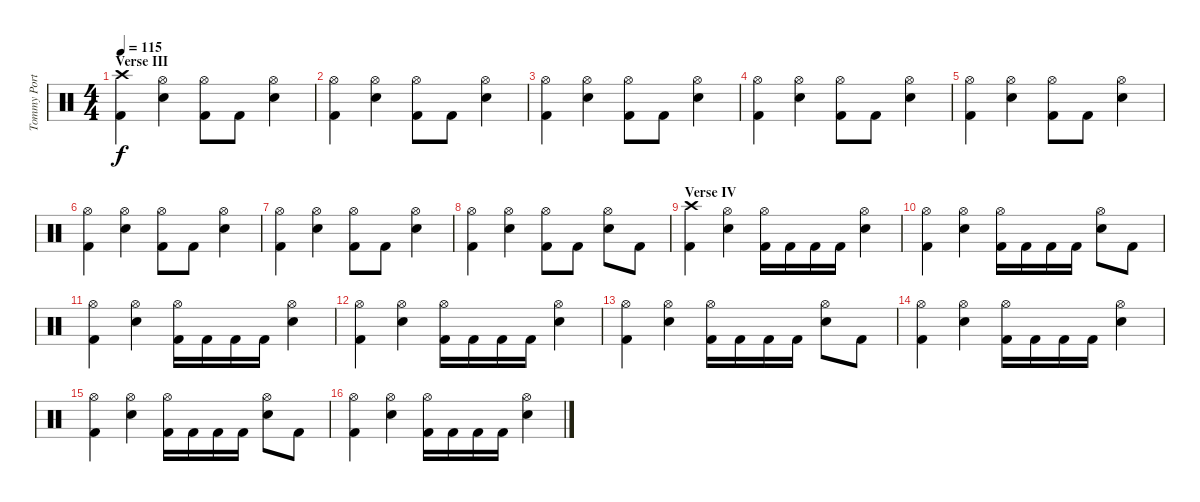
\track ("Tommy Portino - Drums" "Tommy Port") {instrument percussion}
\staff {score}
\articulation defaults
\ts (4 4)
\section ("" "Verse III")
\tempo 115
\clef neutral
\ks c
("Crash high (hit)" "Kick (hit) 2").4{dy f} ("Hi-Hat (open)" "Electric Snare (hit)").4 ("Hi-Hat (open)" "Kick (hit) 2").8 "Kick (hit) 2".8 ("Hi-Hat (open)" "Electric Snare (hit)").4 |
("Hi-Hat (open)" "Kick (hit) 2").4 ("Hi-Hat (open)" "Electric Snare (hit)").4 ("Hi-Hat (open)" "Kick (hit) 2").8 "Kick (hit) 2".8 ("Hi-Hat (open)" "Electric Snare (hit)").4 |
("Hi-Hat (open)" "Kick (hit) 2").4 ("Hi-Hat (open)" "Electric Snare (hit)").4 ("Hi-Hat (open)" "Kick (hit) 2").8 "Kick (hit) 2".8 ("Hi-Hat (open)" "Electric Snare (hit)").4 |
("Hi-Hat (open)" "Kick (hit) 2").4 ("Hi-Hat (open)" "Electric Snare (hit)").4 ("Hi-Hat (open)" "Kick (hit) 2").8 "Kick (hit) 2".8 ("Hi-Hat (open)" "Electric Snare (hit)").4 |
("Hi-Hat (open)" "Kick (hit) 2").4 ("Hi-Hat (open)" "Electric Snare (hit)").4 ("Hi-Hat (open)" "Kick (hit) 2").8 "Kick (hit) 2".8 ("Hi-Hat (open)" "Electric Snare (hit)").4 |
("Hi-Hat (open)" "Kick (hit) 2").4 ("Hi-Hat (open)" "Electric Snare (hit)").4 ("Hi-Hat (open)" "Kick (hit) 2").8 "Kick (hit) 2".8 ("Hi-Hat (open)" "Electric Snare (hit)").4 |
("Hi-Hat (open)" "Kick (hit) 2").4 ("Hi-Hat (open)" "Electric Snare (hit)").4 ("Hi-Hat (open)" "Kick (hit) 2").8 "Kick (hit) 2".8 ("Hi-Hat (open)" "Electric Snare (hit)").4 |
("Hi-Hat (open)" "Kick (hit) 2").4 ("Hi-Hat (open)" "Electric Snare (hit)").4 ("Hi-Hat (open)" "Kick (hit) 2").8 "Kick (hit) 2".8 ("Hi-Hat (open)" "Electric Snare (hit)").8 "Kick (hit) 2".8 |
\section ("" "Verse IV")
("Crash high (hit)" "Kick (hit) 2").4 ("Hi-Hat (open)" "Electric Snare (hit)").4 ("Hi-Hat (open)" "Kick (hit) 2").16 "Kick (hit) 2".16 "Kick (hit) 2".16 "Kick (hit) 2".16 ("Hi-Hat (open)" "Electric Snare (hit)").4 |
("Hi-Hat (open)" "Kick (hit) 2").4 ("Hi-Hat (open)" "Electric Snare (hit)").4 ("Hi-Hat (open)" "Kick (hit) 2").16 "Kick (hit) 2".16 "Kick (hit) 2".16 "Kick (hit) 2".16 ("Hi-Hat (open)" "Electric Snare (hit)").8 "Kick (hit) 2".8 |
("Hi-Hat (open)" "Kick (hit) 2").4 ("Hi-Hat (open)" "Electric Snare (hit)").4 ("Hi-Hat (open)" "Kick (hit) 2").16 "Kick (hit) 2".16 "Kick (hit) 2".16 "Kick (hit) 2".16 ("Hi-Hat (open)" "Electric Snare (hit)").4 |
("Hi-Hat (open)" "Kick (hit) 2").4 ("Hi-Hat (open)" "Electric Snare (hit)").4 ("Hi-Hat (open)" "Kick (hit) 2").16 "Kick (hit) 2".16 "Kick (hit) 2".16 "Kick (hit) 2".16 ("Hi-Hat (open)" "Electric Snare (hit)").4 |
("Hi-Hat (open)" "Kick (hit) 2").4 ("Hi-Hat (open)" "Electric Snare (hit)").4 ("Hi-Hat (open)" "Kick (hit) 2").16 "Kick (hit) 2".16 "Kick (hit) 2".16 "Kick (hit) 2".16 ("Hi-Hat (open)" "Electric Snare (hit)").8 "Kick (hit) 2".8 |
("Hi-Hat (open)" "Kick (hit) 2").4 ("Hi-Hat (open)" "Electric Snare (hit)").4 ("Hi-Hat (open)" "Kick (hit) 2").16 "Kick (hit) 2".16 "Kick (hit) 2".16 "Kick (hit) 2".16 ("Hi-Hat (open)" "Electric Snare (hit)").4 |
("Hi-Hat (open)" "Kick (hit) 2").4 ("Hi-Hat (open)" "Electric Snare (hit)").4 ("Hi-Hat (open)" "Kick (hit) 2").16 "Kick (hit) 2".16 "Kick (hit) 2".16 "Kick (hit) 2".16 ("Hi-Hat (open)" "Electric Snare (hit)").8 "Kick (hit) 2".8 |
("Hi-Hat (open)" "Kick (hit) 2").4 ("Hi-Hat (open)" "Electric Snare (hit)").4 ("Hi-Hat (open)" "Kick (hit) 2").16 "Kick (hit) 2".16 "Kick (hit) 2".16 "Kick (hit) 2".16 ("Hi-Hat (open)" "Electric Snare (hit)").4
